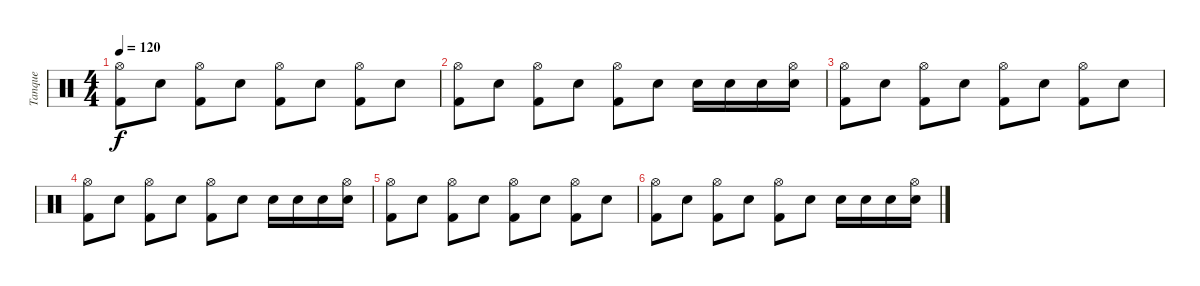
\track ("Tanque" "Tanque") {instrument percussion}
\staff {score}
\articulation defaults
\ts (4 4)
\tempo 120
\clef neutral
\ks c
("Kick (hit) 2" "Hi-Hat (open)").8{dy f} "Electric Snare (hit)".8 ("Kick (hit) 2" "Hi-Hat (open)").8 "Electric Snare (hit)".8 ("Kick (hit) 2" "Hi-Hat (open)").8 "Electric Snare (hit)".8 ("Kick (hit) 2" "Hi-Hat (open)").8 "Electric Snare (hit)".8 |
("Kick (hit) 2" "Hi-Hat (open)").8 "Electric Snare (hit)".8 ("Kick (hit) 2" "Hi-Hat (open)").8 "Electric Snare (hit)".8 ("Kick (hit) 2" "Hi-Hat (open)").8 "Electric Snare (hit)".8 "Electric Snare (hit)".16 "Electric Snare (hit)".16 "Electric Snare (hit)".16 ("Electric Snare (hit)" "Hi-Hat (open)").16 |
("Kick (hit) 2" "Hi-Hat (open)").8 "Electric Snare (hit)".8 ("Kick (hit) 2" "Hi-Hat (open)").8 "Electric Snare (hit)".8 ("Kick (hit) 2" "Hi-Hat (open)").8 "Electric Snare (hit)".8 ("Kick (hit) 2" "Hi-Hat (open)").8 "Electric Snare (hit)".8 |
("Kick (hit) 2" "Hi-Hat (open)").8 "Electric Snare (hit)".8 ("Kick (hit) 2" "Hi-Hat (open)").8 "Electric Snare (hit)".8 ("Kick (hit) 2" "Hi-Hat (open)").8 "Electric Snare (hit)".8 "Electric Snare (hit)".16 "Electric Snare (hit)".16 "Electric Snare (hit)".16 ("Electric Snare (hit)" "Hi-Hat (open)").16 |
("Kick (hit) 2" "Hi-Hat (open)").8 "Electric Snare (hit)".8 ("Kick (hit) 2" "Hi-Hat (open)").8 "Electric Snare (hit)".8 ("Kick (hit) 2" "Hi-Hat (open)").8 "Electric Snare (hit)".8 ("Kick (hit) 2" "Hi-Hat (open)").8 "Electric Snare (hit)".8 |
("Kick (hit) 2" "Hi-Hat (open)").8 "Electric Snare (hit)".8 ("Kick (hit) 2" "Hi-Hat (open)").8 "Electric Snare (hit)".8 ("Kick (hit) 2" "Hi-Hat (open)").8 "Electric Snare (hit)".8 "Electric Snare (hit)".16 "Electric Snare (hit)".16 "Electric Snare (hit)".16 ("Electric Snare (hit)" "Hi-Hat (open)").16
